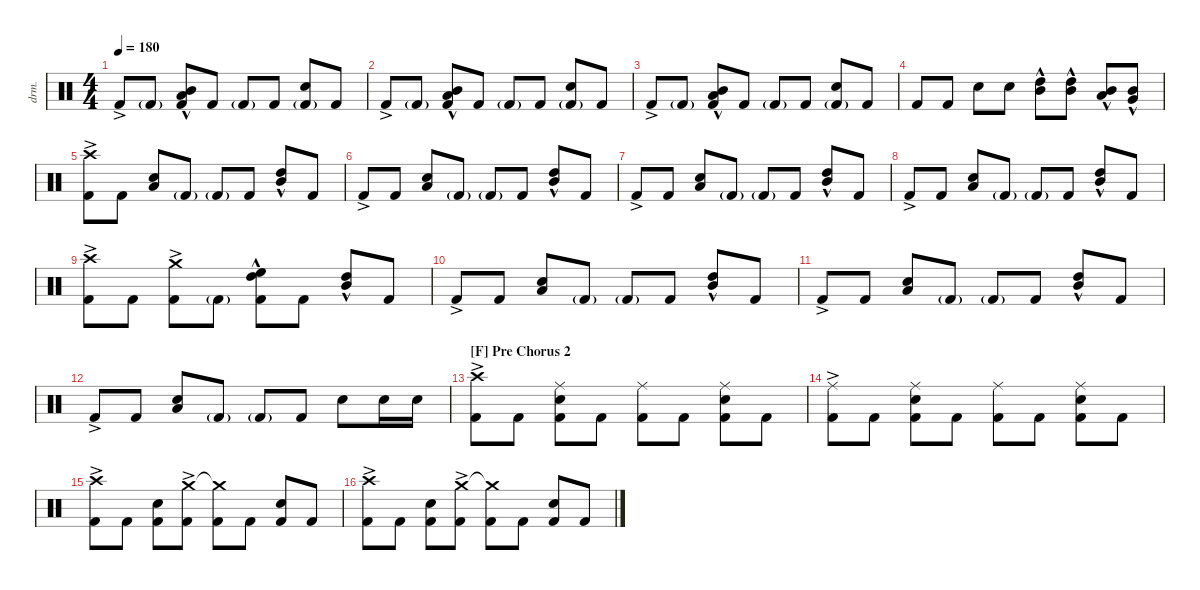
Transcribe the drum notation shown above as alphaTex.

\defaultSystemsLayout 4
\hideDynamics
\bracketExtendMode nobrackets
\otherSystemsTrackNameOrientation horizontal
\track ("Drum" "drm.") {instrument percussion}
\staff {score}
\articulation defaults
\ts (4 4)
\tempo 180
\clef neutral
\ks c "Kick (hit) 2"{ac}.8{dy f beam Up} "Kick (hit) 2"{g}.8{beam Up}
("Kick (hit) 2"{hac} "Low Tom (hit)"{hac} "Mid Tom (hit)"{hac}).8{beam Up} "Kick (hit) 2".8{beam Up} "Kick (hit) 2"{g}.8{beam Up} "Kick (hit) 2".8{beam Up} ("Kick (hit) 2"{g} "Snare (hit) 2").8{beam Up} "Kick (hit) 2".8{beam Up} |
"Kick (hit) 2"{ac}.8{beam Up} "Kick (hit) 2"{g}.8{beam Up} ("Kick (hit) 2"{hac} "Low Tom (hit)"{hac} "Mid Tom (hit)"{hac}).8{beam Up} "Kick (hit) 2".8{beam Up} "Kick (hit) 2"{g}.8{beam Up} "Kick (hit) 2".8{beam Up} ("Kick (hit) 2"{g} "Snare (hit) 2").8{beam Up} "Kick (hit) 2".8{beam Up} |
"Kick (hit) 2"{ac}.8{beam Up} "Kick (hit) 2"{g}.8{beam Up} ("Kick (hit) 2"{hac} "Low Tom (hit)"{hac} "Mid Tom (hit)"{hac}).8{beam Up} "Kick (hit) 2".8{beam Up} "Kick (hit) 2"{g}.8{beam Up} "Kick (hit) 2".8{beam Up} ("Kick (hit) 2"{g} "Snare (hit) 2").8{beam Up} "Kick (hit) 2".8{beam Up} |
"Kick (hit) 2".8{beam Up} "Kick (hit) 2".8{beam Up} "Snare (hit) 2".8{beam Down} "Snare (hit) 2".8{beam Down} ("High Tom (hit)"{hac} "Mid Tom (hit)"{hac}).8{beam Down} ("High Tom (hit)"{hac} "Mid Tom (hit)"{hac}).8{beam Down} ("Mid Tom (hit)"{hac} "Low Tom (hit)"{hac}).8{beam Up} ("Mid Tom (hit)"{hac} "Very Low Tom (hit)"{hac}).8{beam Up} |
("Kick (hit) 2"{ac} "Crash high (hit)"{ac}).8{beam Down} "Kick (hit) 2".8{beam Down} ("Low Tom (hit)" "Snare (hit) 2").8{beam Up} "Kick (hit) 2"{g}.8{beam Up} "Kick (hit) 2"{g}.8{beam Up} "Kick (hit) 2".8{beam Up} ("High Tom (hit)"{hac} "Mid Tom (hit)"{hac}).8{beam Up} "Kick (hit) 2".8{beam Up} |
"Kick (hit) 2"{ac}.8{beam Up} "Kick (hit) 2".8{beam Up} ("Low Tom (hit)" "Snare (hit) 2").8{beam Up} "Kick (hit) 2"{g}.8{beam Up} "Kick (hit) 2"{g}.8{beam Up} "Kick (hit) 2".8{beam Up} ("High Tom (hit)"{hac} "Mid Tom (hit)"{hac}).8{beam Up} "Kick (hit) 2".8{beam Up} |
"Kick (hit) 2"{ac}.8{beam Up} "Kick (hit) 2".8{beam Up} ("Low Tom (hit)" "Snare (hit) 2").8{beam Up} "Kick (hit) 2"{g}.8{beam Up} "Kick (hit) 2"{g}.8{beam Up} "Kick (hit) 2".8{beam Up} ("High Tom (hit)"{hac} "Mid Tom (hit)"{hac}).8{beam Up} "Kick (hit) 2".8{beam Up} |
"Kick (hit) 2"{ac}.8{beam Up} "Kick (hit) 2".8{beam Up} ("Low Tom (hit)" "Snare (hit) 2").8{beam Up} "Kick (hit) 2"{g}.8{beam Up} "Kick (hit) 2"{g}.8{beam Up} "Kick (hit) 2".8{beam Up} ("High Tom (hit)"{hac} "Mid Tom (hit)"{hac}).8{beam Up} "Kick (hit) 2".8{beam Up} |
("Kick (hit) 2"{ac} "Crash high (hit)").8{beam Down} "Kick (hit) 2".8{beam Down} ("Kick (hit) 2"{ac} "Crash medium (hit)"{ac}).8{beam Down} "Kick (hit) 2"{g}.8{beam Down} ("Kick (hit) 2"{hac} "High Floor Tom (hit)"{hac} "High Tom (hit)"{hac}).8{beam Down} "Kick (hit) 2".8{beam Down} ("High Tom (hit)"{hac} "Mid Tom (hit)"{hac}).8{beam Up} "Kick (hit) 2".8{beam Up} |
"Kick (hit) 2"{ac}.8{beam Up} "Kick (hit) 2".8{beam Up} ("Low Tom (hit)" "Snare (hit) 2").8{beam Up} "Kick (hit) 2"{g}.8{beam Up} "Kick (hit) 2"{g}.8{beam Up} "Kick (hit) 2".8{beam Up} ("High Tom (hit)"{hac} "Mid Tom (hit)"{hac}).8{beam Up} "Kick (hit) 2".8{beam Up} |
"Kick (hit) 2"{ac}.8{beam Up} "Kick (hit) 2".8{beam Up} ("Low Tom (hit)" "Snare (hit) 2").8{beam Up} "Kick (hit) 2"{g}.8{beam Up} "Kick (hit) 2"{g}.8{beam Up} "Kick (hit) 2".8{beam Up} ("High Tom (hit)"{hac} "Mid Tom (hit)"{hac}).8{beam Up} "Kick (hit) 2".8{beam Up} |
"Kick (hit) 2"{ac}.8{beam Up} "Kick (hit) 2".8{beam Up} ("Low Tom (hit)" "Snare (hit) 2").8{beam Up} "Kick (hit) 2"{g}.8{beam Up} "Kick (hit) 2"{g}.8{beam Up} "Kick (hit) 2".8{beam Up} "Snare (hit) 2".8{beam Down} "Snare (hit) 2".16{beam Down} "Snare (hit) 2".16{beam Down} |
\section ("F" "Pre Chorus 2")
("Kick (hit) 2"{ac} "Crash high (hit)"{ac}).8{beam Down} "Kick (hit) 2".8{beam Down} ("Kick (hit) 2" "Snare (hit) 2" "Ride (middle)").8{beam Down} "Kick (hit) 2".8{beam Down} ("Kick (hit) 2" "Ride (middle)").8{beam Down} "Kick (hit) 2".8{beam Down} ("Kick (hit) 2" "Snare (hit) 2" "Ride (middle)").8{beam Down} "Kick (hit) 2".8{beam Down} |
("Kick (hit) 2"{ac} "Ride (middle)").8{beam Down} "Kick (hit) 2".8{beam Down} ("Kick (hit) 2" "Snare (hit) 2" "Ride (middle)").8{beam Down} "Kick (hit) 2".8{beam Down} ("Kick (hit) 2" "Ride (middle)").8{beam Down} "Kick (hit) 2".8{beam Down} ("Kick (hit) 2" "Snare (hit) 2" "Ride (middle)").8{beam Down} "Kick (hit) 2".8{beam Down} |
("Kick (hit) 2"{ac} "Crash high (hit)"{ac}).8{beam Down} "Kick (hit) 2".8{beam Down} ("Kick (hit) 2" "Snare (hit) 2").8{beam Down} ("Kick (hit) 2"{ac} "Crash medium (hit)"{ac}).8{beam Down} ("Kick (hit) 2" "Crash medium (hit)"{t}).8{beam Down} "Kick (hit) 2".8{beam Down} ("Kick (hit) 2" "Snare (hit) 2").8{beam Up} "Kick (hit) 2".8{beam Up} |
("Kick (hit) 2"{ac} "Crash high (hit)"{ac}).8{beam Down} "Kick (hit) 2".8{beam Down} ("Kick (hit) 2" "Snare (hit) 2").8{beam Down} ("Kick (hit) 2"{ac} "Crash medium (hit)"{ac}).8{beam Down} ("Kick (hit) 2" "Crash medium (hit)"{t}).8{beam Down} "Kick (hit) 2".8{beam Down} ("Kick (hit) 2" "Snare (hit) 2").8{beam Up} "Kick (hit) 2".8{beam Up}
